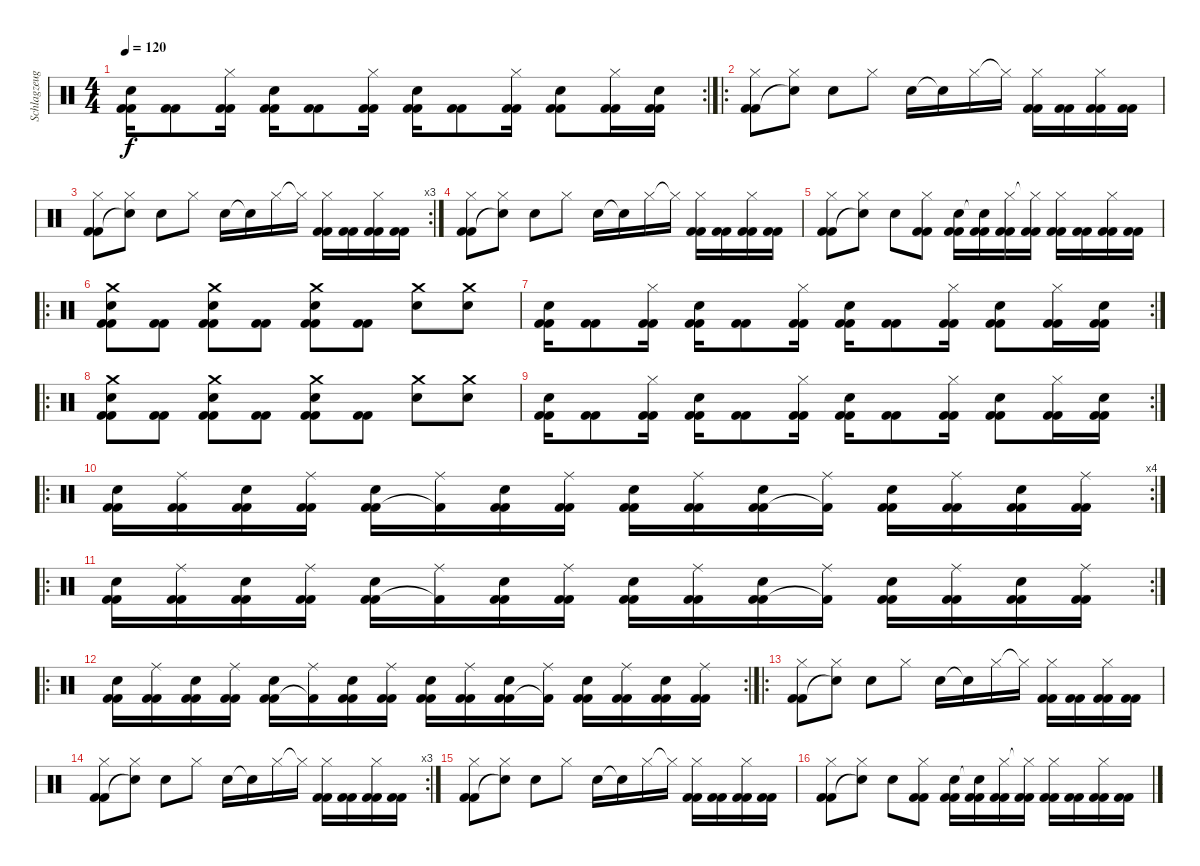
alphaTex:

\track ("Schlagzeug" "Schlagzeug") {instrument percussion}
\staff {score}
\articulation defaults
\rc 2
\ts (4 4)
\tempo 120
\clef neutral
\ks c
("Snare (hit) 2" "Kick (hit) 2" "Kick (hit) 2").16{dy f} ("Kick (hit) 2" "Kick (hit) 2").8 ("Hi-Hat (closed)" "Kick (hit) 2" "Kick (hit) 2").16 ("Snare (hit) 2" "Kick (hit) 2" "Kick (hit) 2").16 ("Kick (hit) 2" "Kick (hit) 2").8 ("Hi-Hat (closed)" "Kick (hit) 2" "Kick (hit) 2").16 ("Snare (hit) 2" "Kick (hit) 2" "Kick (hit) 2").16 ("Kick (hit) 2" "Kick (hit) 2").8 ("Hi-Hat (closed)" "Kick (hit) 2" "Kick (hit) 2").16 ("Snare (hit) 2" "Kick (hit) 2" "Kick (hit) 2").8 ("Hi-Hat (closed)" "Kick (hit) 2" "Kick (hit) 2").16 ("Snare (hit) 2" "Kick (hit) 2" "Kick (hit) 2").16 |
\ro
("Hi-Hat (closed)" "Kick (hit) 2" "Kick (hit) 2").8 ("Hi-Hat (closed)" "Snare (hit)"{t}).8 "Snare (hit) 2".8 "Hi-Hat (closed)".8 "Snare (hit) 2".16 "Snare (hit)"{t}.16 "Hi-Hat (closed)".16 "Hi-Hat (closed)"{t}.16 ("Hi-Hat (closed)" "Kick (hit) 2" "Kick (hit) 2").16 ("Kick (hit) 2" "Kick (hit) 2").16 ("Hi-Hat (closed)" "Kick (hit) 2" "Kick (hit) 2").16 ("Kick (hit) 2" "Kick (hit) 2").16 |
\rc 3
("Hi-Hat (closed)" "Kick (hit) 2" "Kick (hit) 2").8 ("Hi-Hat (closed)" "Snare (hit)"{t}).8 "Snare (hit) 2".8 "Hi-Hat (closed)".8 "Snare (hit) 2".16 "Snare (hit)"{t}.16 "Hi-Hat (closed)".16 "Hi-Hat (closed)"{t}.16 ("Hi-Hat (closed)" "Kick (hit) 2" "Kick (hit) 2").16 ("Kick (hit) 2" "Kick (hit) 2").16 ("Hi-Hat (closed)" "Kick (hit) 2" "Kick (hit) 2").16 ("Kick (hit) 2" "Kick (hit) 2").16 |
("Hi-Hat (closed)" "Kick (hit) 2" "Kick (hit) 2").8 ("Hi-Hat (closed)" "Snare (hit)"{t}).8 "Snare (hit) 2".8 "Hi-Hat (closed)".8 "Snare (hit) 2".16 "Snare (hit)"{t}.16 "Hi-Hat (closed)".16 "Hi-Hat (closed)"{t}.16 ("Hi-Hat (closed)" "Kick (hit) 2" "Kick (hit) 2").16 ("Kick (hit) 2" "Kick (hit) 2").16 ("Hi-Hat (closed)" "Kick (hit) 2" "Kick (hit) 2").16 ("Kick (hit) 2" "Kick (hit) 2").16 |
("Hi-Hat (closed)" "Kick (hit) 2" "Kick (hit) 2").8 ("Hi-Hat (closed)" "Snare (hit)"{t}).8 "Snare (hit) 2".8 ("Hi-Hat (closed)" "Kick (hit) 2" "Kick (hit) 2").8 ("Snare (hit) 2" "Kick (hit) 2" "Kick (hit) 2").16 ("Snare (hit)"{t} "Kick (hit) 2" "Kick (hit) 2").16 ("Hi-Hat (closed)" "Kick (hit) 2" "Kick (hit) 2").16 ("Hi-Hat (closed)"{t} "Kick (hit) 2" "Kick (hit) 2").16 ("Hi-Hat (closed)" "Kick (hit) 2" "Kick (hit) 2").16 ("Kick (hit) 2" "Kick (hit) 2").16 ("Hi-Hat (closed)" "Kick (hit) 2" "Kick (hit) 2").16 ("Kick (hit) 2" "Kick (hit) 2").16 |
\ro
("Crash medium (hit)" "Snare (hit) 2" "Kick (hit) 2" "Kick (hit) 2").8 ("Kick (hit) 2" "Kick (hit) 2").8 ("Crash medium (hit)" "Snare (hit) 2" "Kick (hit) 2" "Kick (hit) 2").8 ("Kick (hit) 2" "Kick (hit) 2").8 ("Crash medium (hit)" "Snare (hit) 2" "Kick (hit) 2" "Kick (hit) 2").8 ("Kick (hit) 2" "Kick (hit) 2").8 ("Crash medium (hit)" "Snare (hit) 2").8 ("Crash medium (hit)" "Snare (hit) 2").8 |
\rc 2
("Snare (hit) 2" "Kick (hit) 2" "Kick (hit) 2").16 ("Kick (hit) 2" "Kick (hit) 2").8 ("Hi-Hat (closed)" "Kick (hit) 2" "Kick (hit) 2").16 ("Snare (hit) 2" "Kick (hit) 2" "Kick (hit) 2").16 ("Kick (hit) 2" "Kick (hit) 2").8 ("Hi-Hat (closed)" "Kick (hit) 2" "Kick (hit) 2").16 ("Snare (hit) 2" "Kick (hit) 2" "Kick (hit) 2").16 ("Kick (hit) 2" "Kick (hit) 2").8 ("Hi-Hat (closed)" "Kick (hit) 2" "Kick (hit) 2").16 ("Snare (hit) 2" "Kick (hit) 2" "Kick (hit) 2").8 ("Hi-Hat (closed)" "Kick (hit) 2" "Kick (hit) 2").16 ("Snare (hit) 2" "Kick (hit) 2" "Kick (hit) 2").16 |
\ro
("Crash medium (hit)" "Snare (hit) 2" "Kick (hit) 2" "Kick (hit) 2").8 ("Kick (hit) 2" "Kick (hit) 2").8 ("Crash medium (hit)" "Snare (hit) 2" "Kick (hit) 2" "Kick (hit) 2").8 ("Kick (hit) 2" "Kick (hit) 2").8 ("Crash medium (hit)" "Snare (hit) 2" "Kick (hit) 2" "Kick (hit) 2").8 ("Kick (hit) 2" "Kick (hit) 2").8 ("Crash medium (hit)" "Snare (hit) 2").8 ("Crash medium (hit)" "Snare (hit) 2").8 |
\rc 2
("Snare (hit) 2" "Kick (hit) 2" "Kick (hit) 2").16 ("Kick (hit) 2" "Kick (hit) 2").8 ("Hi-Hat (closed)" "Kick (hit) 2" "Kick (hit) 2").16 ("Snare (hit) 2" "Kick (hit) 2" "Kick (hit) 2").16 ("Kick (hit) 2" "Kick (hit) 2").8 ("Hi-Hat (closed)" "Kick (hit) 2" "Kick (hit) 2").16 ("Snare (hit) 2" "Kick (hit) 2" "Kick (hit) 2").16 ("Kick (hit) 2" "Kick (hit) 2").8 ("Hi-Hat (closed)" "Kick (hit) 2" "Kick (hit) 2").16 ("Snare (hit) 2" "Kick (hit) 2" "Kick (hit) 2").8 ("Hi-Hat (closed)" "Kick (hit) 2" "Kick (hit) 2").16 ("Snare (hit) 2" "Kick (hit) 2" "Kick (hit) 2").16 |
\ro
\rc 4
("Snare (hit) 2" "Kick (hit) 2" "Kick (hit) 2").16 ("Ride (middle)" "Kick (hit) 2" "Kick (hit) 2").16 ("Snare (hit) 2" "Kick (hit) 2" "Kick (hit) 2").16 ("Ride (middle)" "Kick (hit) 2" "Kick (hit) 2").16 ("Snare (hit) 2" "Kick (hit) 2" "Kick (hit) 2").16 ("Ride (middle)" "Kick (hit) 2"{t}).16 ("Snare (hit) 2" "Kick (hit) 2" "Kick (hit) 2").16 ("Ride (middle)" "Kick (hit) 2" "Kick (hit) 2").16 ("Snare (hit) 2" "Kick (hit) 2" "Kick (hit) 2").16 ("Ride (middle)" "Kick (hit) 2" "Kick (hit) 2").16 ("Snare (hit) 2" "Kick (hit) 2" "Kick (hit) 2").16 ("Ride (middle)" "Kick (hit) 2"{t}).16 ("Snare (hit) 2" "Kick (hit) 2" "Kick (hit) 2").16 ("Ride (middle)" "Kick (hit) 2" "Kick (hit) 2").16 ("Snare (hit) 2" "Kick (hit) 2" "Kick (hit) 2").16 ("Ride (middle)" "Kick (hit) 2" "Kick (hit) 2").16 |
\ro
\rc 2
("Snare (hit) 2" "Kick (hit) 2" "Kick (hit) 2").16 ("Ride (middle)" "Kick (hit) 2" "Kick (hit) 2").16 ("Snare (hit) 2" "Kick (hit) 2" "Kick (hit) 2").16 ("Ride (middle)" "Kick (hit) 2" "Kick (hit) 2").16 ("Snare (hit) 2" "Kick (hit) 2" "Kick (hit) 2").16 ("Ride (middle)" "Kick (hit) 2"{t}).16 ("Snare (hit) 2" "Kick (hit) 2" "Kick (hit) 2").16 ("Ride (middle)" "Kick (hit) 2" "Kick (hit) 2").16 ("Snare (hit) 2" "Kick (hit) 2" "Kick (hit) 2").16 ("Ride (middle)" "Kick (hit) 2" "Kick (hit) 2").16 ("Snare (hit) 2" "Kick (hit) 2" "Kick (hit) 2").16 ("Ride (middle)" "Kick (hit) 2"{t}).16 ("Snare (hit) 2" "Kick (hit) 2" "Kick (hit) 2").16 ("Ride (middle)" "Kick (hit) 2" "Kick (hit) 2").16 ("Snare (hit) 2" "Kick (hit) 2" "Kick (hit) 2").16 ("Ride (middle)" "Kick (hit) 2" "Kick (hit) 2").16 |
\ro
\rc 2
("Snare (hit) 2" "Kick (hit) 2" "Kick (hit) 2").16 ("Ride (middle)" "Kick (hit) 2" "Kick (hit) 2").16 ("Snare (hit) 2" "Kick (hit) 2" "Kick (hit) 2").16 ("Ride (middle)" "Kick (hit) 2" "Kick (hit) 2").16 ("Snare (hit) 2" "Kick (hit) 2" "Kick (hit) 2").16 ("Ride (middle)" "Kick (hit) 2"{t}).16 ("Snare (hit) 2" "Kick (hit) 2" "Kick (hit) 2").16 ("Ride (middle)" "Kick (hit) 2" "Kick (hit) 2").16 ("Snare (hit) 2" "Kick (hit) 2" "Kick (hit) 2").16 ("Ride (middle)" "Kick (hit) 2" "Kick (hit) 2").16 ("Snare (hit) 2" "Kick (hit) 2" "Kick (hit) 2").16 ("Ride (middle)" "Kick (hit) 2"{t}).16 ("Snare (hit) 2" "Kick (hit) 2" "Kick (hit) 2").16 ("Ride (middle)" "Kick (hit) 2" "Kick (hit) 2").16 ("Snare (hit) 2" "Kick (hit) 2" "Kick (hit) 2").16 ("Ride (middle)" "Kick (hit) 2" "Kick (hit) 2").16 |
\ro
("Hi-Hat (closed)" "Kick (hit) 2" "Kick (hit) 2").8 ("Hi-Hat (closed)" "Snare (hit)"{t}).8 "Snare (hit) 2".8 "Hi-Hat (closed)".8 "Snare (hit) 2".16 "Snare (hit)"{t}.16 "Hi-Hat (closed)".16 "Hi-Hat (closed)"{t}.16 ("Hi-Hat (closed)" "Kick (hit) 2" "Kick (hit) 2").16 ("Kick (hit) 2" "Kick (hit) 2").16 ("Hi-Hat (closed)" "Kick (hit) 2" "Kick (hit) 2").16 ("Kick (hit) 2" "Kick (hit) 2").16 |
\rc 3
("Hi-Hat (closed)" "Kick (hit) 2" "Kick (hit) 2").8 ("Hi-Hat (closed)" "Snare (hit)"{t}).8 "Snare (hit) 2".8 "Hi-Hat (closed)".8 "Snare (hit) 2".16 "Snare (hit)"{t}.16 "Hi-Hat (closed)".16 "Hi-Hat (closed)"{t}.16 ("Hi-Hat (closed)" "Kick (hit) 2" "Kick (hit) 2").16 ("Kick (hit) 2" "Kick (hit) 2").16 ("Hi-Hat (closed)" "Kick (hit) 2" "Kick (hit) 2").16 ("Kick (hit) 2" "Kick (hit) 2").16 |
("Hi-Hat (closed)" "Kick (hit) 2" "Kick (hit) 2").8 ("Hi-Hat (closed)" "Snare (hit)"{t}).8 "Snare (hit) 2".8 "Hi-Hat (closed)".8 "Snare (hit) 2".16 "Snare (hit)"{t}.16 "Hi-Hat (closed)".16 "Hi-Hat (closed)"{t}.16 ("Hi-Hat (closed)" "Kick (hit) 2" "Kick (hit) 2").16 ("Kick (hit) 2" "Kick (hit) 2").16 ("Hi-Hat (closed)" "Kick (hit) 2" "Kick (hit) 2").16 ("Kick (hit) 2" "Kick (hit) 2").16 |
("Hi-Hat (closed)" "Kick (hit) 2" "Kick (hit) 2").8 ("Hi-Hat (closed)" "Snare (hit)"{t}).8 "Snare (hit) 2".8 ("Hi-Hat (closed)" "Kick (hit) 2" "Kick (hit) 2").8 ("Snare (hit) 2" "Kick (hit) 2" "Kick (hit) 2").16 ("Snare (hit)"{t} "Kick (hit) 2" "Kick (hit) 2").16 ("Hi-Hat (closed)" "Kick (hit) 2" "Kick (hit) 2").16 ("Hi-Hat (closed)"{t} "Kick (hit) 2" "Kick (hit) 2").16 ("Hi-Hat (closed)" "Kick (hit) 2" "Kick (hit) 2").16 ("Kick (hit) 2" "Kick (hit) 2").16 ("Hi-Hat (closed)" "Kick (hit) 2" "Kick (hit) 2").16 ("Kick (hit) 2" "Kick (hit) 2").16
